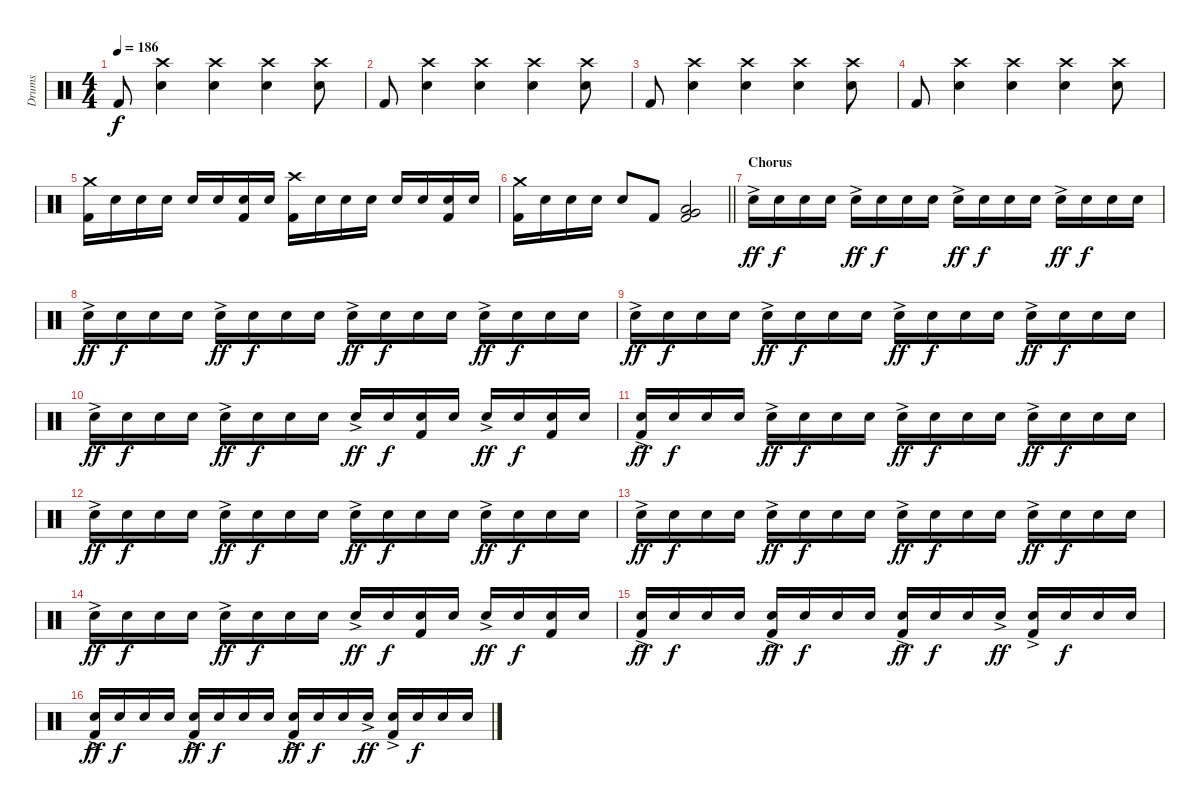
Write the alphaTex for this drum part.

\track ("Drums" "Drums") {instrument percussion}
\staff {score}
\articulation defaults
\ts (4 4)
\tempo 186
\clef neutral
\ks c "Kick (hit) 2".8{dy f}
("Crash high (hit)" "Electric Snare (hit)").4 ("Crash high (hit)" "Electric Snare (hit)").4 ("Crash high (hit)" "Electric Snare (hit)").4 ("Crash high (hit)" "Electric Snare (hit)").8 |
"Kick (hit) 2".8 ("Crash high (hit)" "Electric Snare (hit)").4 ("Crash high (hit)" "Electric Snare (hit)").4 ("Crash high (hit)" "Electric Snare (hit)").4 ("Crash high (hit)" "Electric Snare (hit)").8 |
"Kick (hit) 2".8 ("Crash high (hit)" "Electric Snare (hit)").4 ("Crash high (hit)" "Electric Snare (hit)").4 ("Crash high (hit)" "Electric Snare (hit)").4 ("Crash high (hit)" "Electric Snare (hit)").8 |
"Kick (hit) 2".8 ("Crash high (hit)" "Electric Snare (hit)").4 ("Crash high (hit)" "Electric Snare (hit)").4 ("Crash high (hit)" "Electric Snare (hit)").4 ("Crash high (hit)" "Electric Snare (hit)").8 |
("Crash medium (hit)" "Kick (hit) 2").16 "Electric Snare (hit)".16 "Electric Snare (hit)".16 "Electric Snare (hit)".16 "Electric Snare (hit)".16 "Electric Snare (hit)".16 ("Electric Snare (hit)" "Kick (hit) 2").16 "Electric Snare (hit)".16 ("Crash high (hit)" "Kick (hit) 2").16 "Electric Snare (hit)".16 "Electric Snare (hit)".16 "Electric Snare (hit)".16 "Electric Snare (hit)".16 "Electric Snare (hit)".16 ("Electric Snare (hit)" "Kick (hit) 2").16 "Electric Snare (hit)".16 |
\barLineRight lightlight
("Crash medium (hit)" "Kick (hit) 2").16 "Electric Snare (hit)".16 "Electric Snare (hit)".16 "Electric Snare (hit)".16 "Electric Snare (hit)".8 "Kick (hit) 2".8 ("Very Low Tom (hit)" "Low Floor Tom (hit)" "Kick (hit) 2").2 |
\section ("" "Chorus")
"Electric Snare (hit)"{ac}.16{dy ff} "Electric Snare (hit)".16{dy f} "Electric Snare (hit)".16 "Electric Snare (hit)".16 "Electric Snare (hit)"{ac}.16{dy ff} "Electric Snare (hit)".16{dy f} "Electric Snare (hit)".16 "Electric Snare (hit)".16 "Electric Snare (hit)"{ac}.16{dy ff} "Electric Snare (hit)".16{dy f} "Electric Snare (hit)".16 "Electric Snare (hit)".16 "Electric Snare (hit)"{ac}.16{dy ff} "Electric Snare (hit)".16{dy f} "Electric Snare (hit)".16 "Electric Snare (hit)".16 |
"Electric Snare (hit)"{ac}.16{dy ff} "Electric Snare (hit)".16{dy f} "Electric Snare (hit)".16 "Electric Snare (hit)".16 "Electric Snare (hit)"{ac}.16{dy ff} "Electric Snare (hit)".16{dy f} "Electric Snare (hit)".16 "Electric Snare (hit)".16 "Electric Snare (hit)"{ac}.16{dy ff} "Electric Snare (hit)".16{dy f} "Electric Snare (hit)".16 "Electric Snare (hit)".16 "Electric Snare (hit)"{ac}.16{dy ff} "Electric Snare (hit)".16{dy f} "Electric Snare (hit)".16 "Electric Snare (hit)".16 |
"Electric Snare (hit)"{ac}.16{dy ff} "Electric Snare (hit)".16{dy f} "Electric Snare (hit)".16 "Electric Snare (hit)".16 "Electric Snare (hit)"{ac}.16{dy ff} "Electric Snare (hit)".16{dy f} "Electric Snare (hit)".16 "Electric Snare (hit)".16 "Electric Snare (hit)"{ac}.16{dy ff} "Electric Snare (hit)".16{dy f} "Electric Snare (hit)".16 "Electric Snare (hit)".16 "Electric Snare (hit)"{ac}.16{dy ff} "Electric Snare (hit)".16{dy f} "Electric Snare (hit)".16 "Electric Snare (hit)".16 |
"Electric Snare (hit)"{ac}.16{dy ff} "Electric Snare (hit)".16{dy f} "Electric Snare (hit)".16 "Electric Snare (hit)".16 "Electric Snare (hit)"{ac}.16{dy ff} "Electric Snare (hit)".16{dy f} "Electric Snare (hit)".16 "Electric Snare (hit)".16 "Electric Snare (hit)"{ac}.16{dy ff} "Electric Snare (hit)".16{dy f} ("Electric Snare (hit)" "Kick (hit) 2").16 "Electric Snare (hit)".16 "Electric Snare (hit)"{ac}.16{dy ff} "Electric Snare (hit)".16{dy f} ("Electric Snare (hit)" "Kick (hit) 2").16 "Electric Snare (hit)".16 |
("Electric Snare (hit)"{ac} "Kick (hit) 2").16{dy ff} "Electric Snare (hit)".16{dy f} "Electric Snare (hit)".16 "Electric Snare (hit)".16 "Electric Snare (hit)"{ac}.16{dy ff} "Electric Snare (hit)".16{dy f} "Electric Snare (hit)".16 "Electric Snare (hit)".16 "Electric Snare (hit)"{ac}.16{dy ff} "Electric Snare (hit)".16{dy f} "Electric Snare (hit)".16 "Electric Snare (hit)".16 "Electric Snare (hit)"{ac}.16{dy ff} "Electric Snare (hit)".16{dy f} "Electric Snare (hit)".16 "Electric Snare (hit)".16 |
"Electric Snare (hit)"{ac}.16{dy ff} "Electric Snare (hit)".16{dy f} "Electric Snare (hit)".16 "Electric Snare (hit)".16 "Electric Snare (hit)"{ac}.16{dy ff} "Electric Snare (hit)".16{dy f} "Electric Snare (hit)".16 "Electric Snare (hit)".16 "Electric Snare (hit)"{ac}.16{dy ff} "Electric Snare (hit)".16{dy f} "Electric Snare (hit)".16 "Electric Snare (hit)".16 "Electric Snare (hit)"{ac}.16{dy ff} "Electric Snare (hit)".16{dy f} "Electric Snare (hit)".16 "Electric Snare (hit)".16 |
"Electric Snare (hit)"{ac}.16{dy ff} "Electric Snare (hit)".16{dy f} "Electric Snare (hit)".16 "Electric Snare (hit)".16 "Electric Snare (hit)"{ac}.16{dy ff} "Electric Snare (hit)".16{dy f} "Electric Snare (hit)".16 "Electric Snare (hit)".16 "Electric Snare (hit)"{ac}.16{dy ff} "Electric Snare (hit)".16{dy f} "Electric Snare (hit)".16 "Electric Snare (hit)".16 "Electric Snare (hit)"{ac}.16{dy ff} "Electric Snare (hit)".16{dy f} "Electric Snare (hit)".16 "Electric Snare (hit)".16 |
"Electric Snare (hit)"{ac}.16{dy ff} "Electric Snare (hit)".16{dy f} "Electric Snare (hit)".16 "Electric Snare (hit)".16 "Electric Snare (hit)"{ac}.16{dy ff} "Electric Snare (hit)".16{dy f} "Electric Snare (hit)".16 "Electric Snare (hit)".16 "Electric Snare (hit)"{ac}.16{dy ff} "Electric Snare (hit)".16{dy f} ("Electric Snare (hit)" "Kick (hit) 2").16 "Electric Snare (hit)".16 "Electric Snare (hit)"{ac}.16{dy ff} "Electric Snare (hit)".16{dy f} ("Electric Snare (hit)" "Kick (hit) 2").16 "Electric Snare (hit)".16 |
("Electric Snare (hit)"{ac} "Kick (hit) 2").16{dy ff} "Electric Snare (hit)".16{dy f} "Electric Snare (hit)".16 "Electric Snare (hit)".16 ("Electric Snare (hit)"{ac} "Kick (hit) 2").16{dy ff} "Electric Snare (hit)".16{dy f} "Electric Snare (hit)".16 "Electric Snare (hit)".16 ("Electric Snare (hit)"{ac} "Kick (hit) 2").16{dy ff} "Electric Snare (hit)".16{dy f} "Electric Snare (hit)".16 "Electric Snare (hit)"{ac}.16{dy ff} ("Electric Snare (hit)"{ac} "Kick (hit) 2").16 "Electric Snare (hit)".16{dy f} "Electric Snare (hit)".16 "Electric Snare (hit)".16 |
("Electric Snare (hit)"{ac} "Kick (hit) 2").16{dy ff} "Electric Snare (hit)".16{dy f} "Electric Snare (hit)".16 "Electric Snare (hit)".16 ("Electric Snare (hit)"{ac} "Kick (hit) 2").16{dy ff} "Electric Snare (hit)".16{dy f} "Electric Snare (hit)".16 "Electric Snare (hit)".16 ("Electric Snare (hit)"{ac} "Kick (hit) 2").16{dy ff} "Electric Snare (hit)".16{dy f} "Electric Snare (hit)".16 "Electric Snare (hit)"{ac}.16{dy ff} ("Electric Snare (hit)"{ac} "Kick (hit) 2").16 "Electric Snare (hit)".16{dy f} "Electric Snare (hit)".16 "Electric Snare (hit)".16
